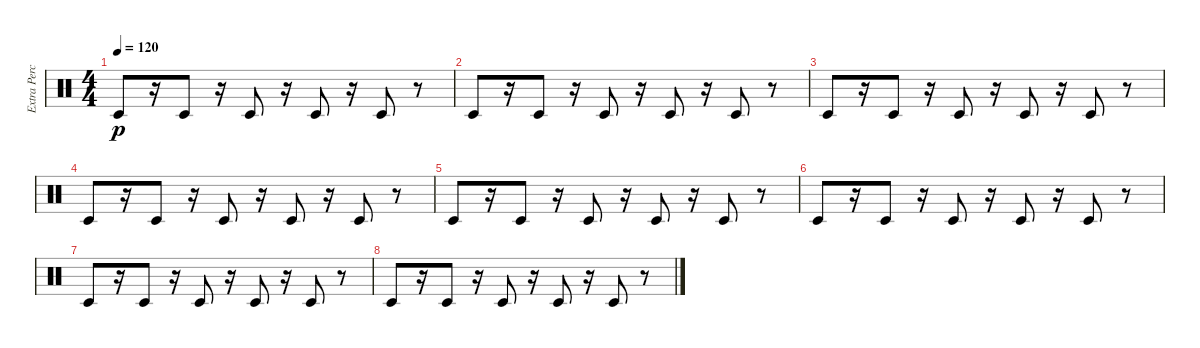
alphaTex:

\track ("Extra Percussion" "Extra Perc") {instrument percussion}
\staff {score}
\articulation defaults
\ts (4 4)
\tempo 120
\clef neutral
\ks c "Timbale low (hit)".8{dy p}
r.16 "Timbale low (hit)".8 r.16 "Timbale low (hit)".8 r.16 "Timbale low (hit)".8 r.16 "Timbale low (hit)".8 r.8 |
"Timbale low (hit)".8 r.16 "Timbale low (hit)".8 r.16 "Timbale low (hit)".8 r.16 "Timbale low (hit)".8 r.16 "Timbale low (hit)".8 r.8 |
"Timbale low (hit)".8 r.16 "Timbale low (hit)".8 r.16 "Timbale low (hit)".8 r.16 "Timbale low (hit)".8 r.16 "Timbale low (hit)".8 r.8 |
"Timbale low (hit)".8 r.16 "Timbale low (hit)".8 r.16 "Timbale low (hit)".8 r.16 "Timbale low (hit)".8 r.16 "Timbale low (hit)".8 r.8 |
"Timbale low (hit)".8 r.16 "Timbale low (hit)".8 r.16 "Timbale low (hit)".8 r.16 "Timbale low (hit)".8 r.16 "Timbale low (hit)".8 r.8 |
"Timbale low (hit)".8 r.16 "Timbale low (hit)".8 r.16 "Timbale low (hit)".8 r.16 "Timbale low (hit)".8 r.16 "Timbale low (hit)".8 r.8 |
"Timbale low (hit)".8 r.16 "Timbale low (hit)".8 r.16 "Timbale low (hit)".8 r.16 "Timbale low (hit)".8 r.16 "Timbale low (hit)".8 r.8 |
"Timbale low (hit)".8 r.16 "Timbale low (hit)".8 r.16 "Timbale low (hit)".8 r.16 "Timbale low (hit)".8 r.16 "Timbale low (hit)".8 r.8
